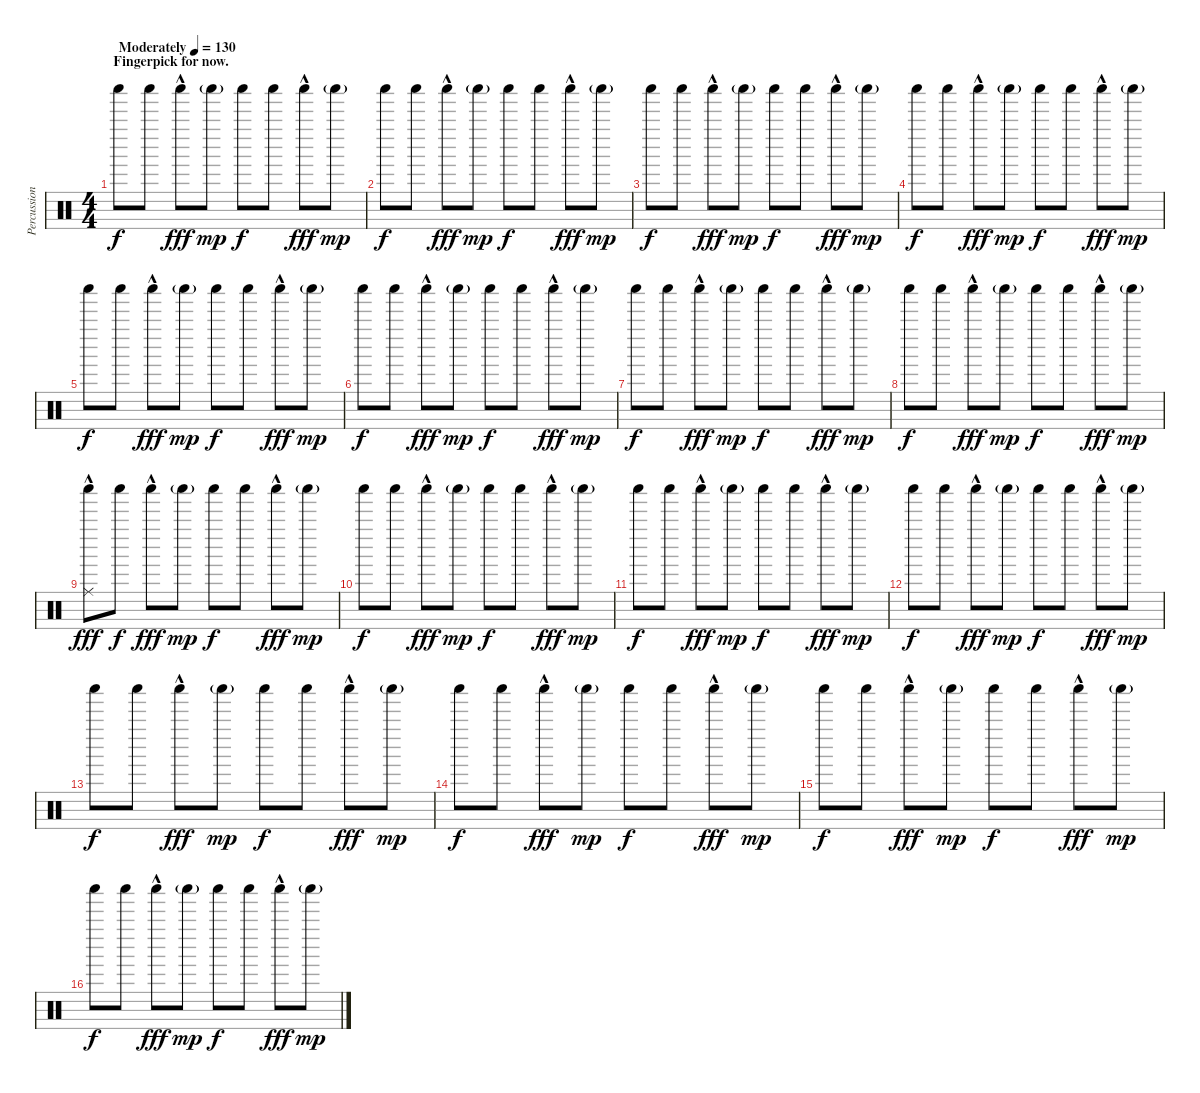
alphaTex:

\track ("Percussion" "Percussion") {instrument percussion}
\staff {score}
\articulation defaults
\ts (4 4)
\section ("" "Fingerpick for now.")
\tempo (130 "Moderately")
\clef neutral
\ks c "Shaker (hit)".8{dy f} "Shaker (hit)".8 "Shaker (hit)"{hac}.8{dy fff} "Shaker (hit)"{g}.8{dy mp} "Shaker (hit)".8{dy f} "Shaker (hit)".8 "Shaker (hit)"{hac}.8{dy fff} "Shaker (hit)"{g}.8{dy mp}
|
"Shaker (hit)".8{dy f} "Shaker (hit)".8 "Shaker (hit)"{hac}.8{dy fff} "Shaker (hit)"{g}.8{dy mp} "Shaker (hit)".8{dy f} "Shaker (hit)".8 "Shaker (hit)"{hac}.8{dy fff} "Shaker (hit)"{g}.8{dy mp} |
"Shaker (hit)".8{dy f} "Shaker (hit)".8 "Shaker (hit)"{hac}.8{dy fff} "Shaker (hit)"{g}.8{dy mp} "Shaker (hit)".8{dy f} "Shaker (hit)".8 "Shaker (hit)"{hac}.8{dy fff} "Shaker (hit)"{g}.8{dy mp} |
"Shaker (hit)".8{dy f} "Shaker (hit)".8 "Shaker (hit)"{hac}.8{dy fff} "Shaker (hit)"{g}.8{dy mp} "Shaker (hit)".8{dy f} "Shaker (hit)".8 "Shaker (hit)"{hac}.8{dy fff} "Shaker (hit)"{g}.8{dy mp} |
"Shaker (hit)".8{dy f} "Shaker (hit)".8 "Shaker (hit)"{hac}.8{dy fff} "Shaker (hit)"{g}.8{dy mp} "Shaker (hit)".8{dy f} "Shaker (hit)".8 "Shaker (hit)"{hac}.8{dy fff} "Shaker (hit)"{g}.8{dy mp} |
"Shaker (hit)".8{dy f} "Shaker (hit)".8 "Shaker (hit)"{hac}.8{dy fff} "Shaker (hit)"{g}.8{dy mp} "Shaker (hit)".8{dy f} "Shaker (hit)".8 "Shaker (hit)"{hac}.8{dy fff} "Shaker (hit)"{g}.8{dy mp} |
"Shaker (hit)".8{dy f} "Shaker (hit)".8 "Shaker (hit)"{hac}.8{dy fff} "Shaker (hit)"{g}.8{dy mp} "Shaker (hit)".8{dy f} "Shaker (hit)".8 "Shaker (hit)"{hac}.8{dy fff} "Shaker (hit)"{g}.8{dy mp} |
"Shaker (hit)".8{dy f} "Shaker (hit)".8 "Shaker (hit)"{hac}.8{dy fff} "Shaker (hit)"{g}.8{dy mp} "Shaker (hit)".8{dy f} "Shaker (hit)".8 "Shaker (hit)"{hac}.8{dy fff} "Shaker (hit)"{g}.8{dy mp} |
("Ride (middle)"{hac} "Shaker (hit)").8{dy fff} "Shaker (hit)".8{dy f} "Shaker (hit)"{hac}.8{dy fff} "Shaker (hit)"{g}.8{dy mp} "Shaker (hit)".8{dy f} "Shaker (hit)".8 "Shaker (hit)"{hac}.8{dy fff} "Shaker (hit)"{g}.8{dy mp} |
"Shaker (hit)".8{dy f} "Shaker (hit)".8 "Shaker (hit)"{hac}.8{dy fff} "Shaker (hit)"{g}.8{dy mp} "Shaker (hit)".8{dy f} "Shaker (hit)".8 "Shaker (hit)"{hac}.8{dy fff} "Shaker (hit)"{g}.8{dy mp} |
"Shaker (hit)".8{dy f} "Shaker (hit)".8 "Shaker (hit)"{hac}.8{dy fff} "Shaker (hit)"{g}.8{dy mp} "Shaker (hit)".8{dy f} "Shaker (hit)".8 "Shaker (hit)"{hac}.8{dy fff} "Shaker (hit)"{g}.8{dy mp} |
"Shaker (hit)".8{dy f} "Shaker (hit)".8 "Shaker (hit)"{hac}.8{dy fff} "Shaker (hit)"{g}.8{dy mp} "Shaker (hit)".8{dy f} "Shaker (hit)".8 "Shaker (hit)"{hac}.8{dy fff} "Shaker (hit)"{g}.8{dy mp} |
"Shaker (hit)".8{dy f} "Shaker (hit)".8 "Shaker (hit)"{hac}.8{dy fff} "Shaker (hit)"{g}.8{dy mp} "Shaker (hit)".8{dy f} "Shaker (hit)".8 "Shaker (hit)"{hac}.8{dy fff} "Shaker (hit)"{g}.8{dy mp} |
"Shaker (hit)".8{dy f} "Shaker (hit)".8 "Shaker (hit)"{hac}.8{dy fff} "Shaker (hit)"{g}.8{dy mp} "Shaker (hit)".8{dy f} "Shaker (hit)".8 "Shaker (hit)"{hac}.8{dy fff} "Shaker (hit)"{g}.8{dy mp} |
"Shaker (hit)".8{dy f} "Shaker (hit)".8 "Shaker (hit)"{hac}.8{dy fff} "Shaker (hit)"{g}.8{dy mp} "Shaker (hit)".8{dy f} "Shaker (hit)".8 "Shaker (hit)"{hac}.8{dy fff} "Shaker (hit)"{g}.8{dy mp} |
"Shaker (hit)".8{dy f} "Shaker (hit)".8 "Shaker (hit)"{hac}.8{dy fff} "Shaker (hit)"{g}.8{dy mp} "Shaker (hit)".8{dy f} "Shaker (hit)".8 "Shaker (hit)"{hac}.8{dy fff} "Shaker (hit)"{g}.8{dy mp}
